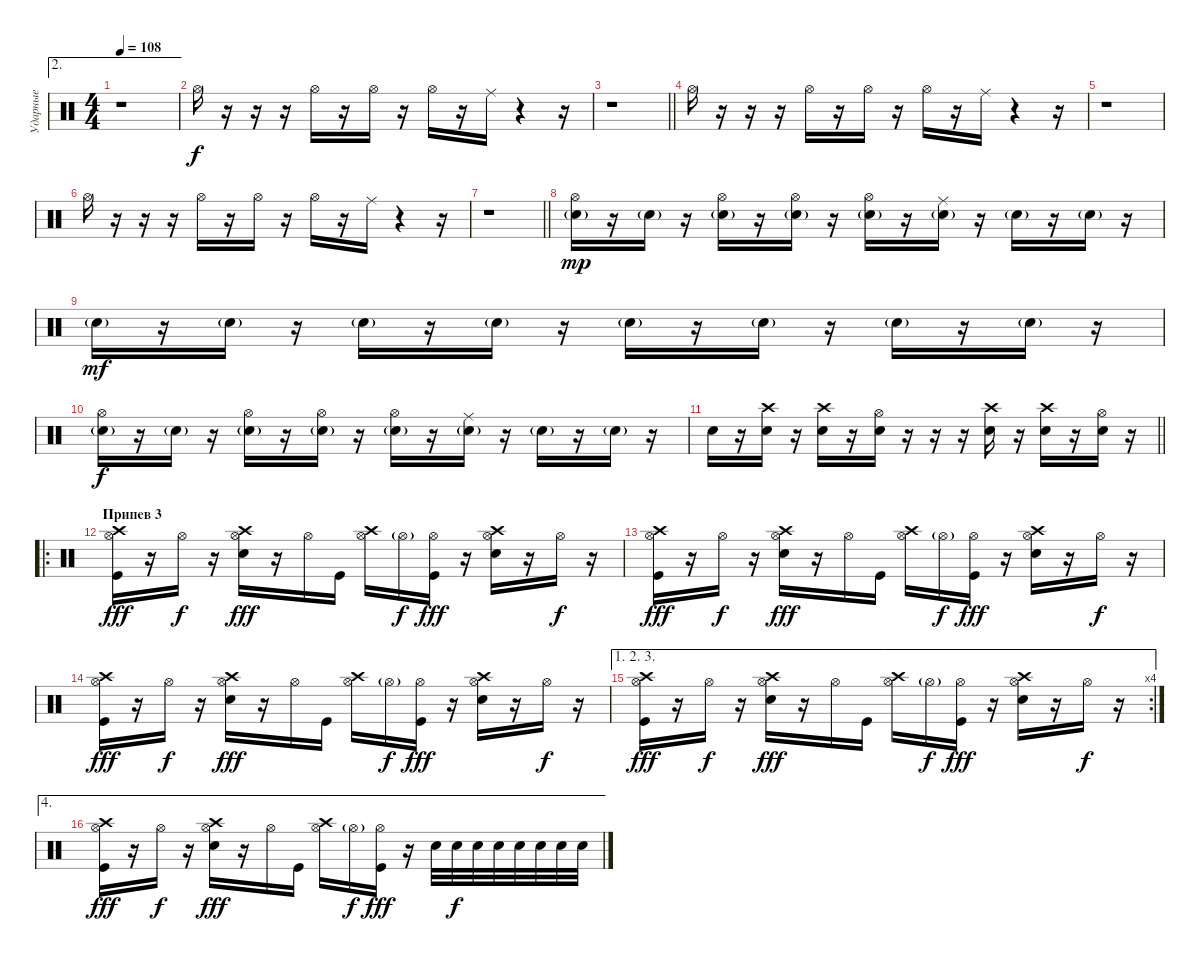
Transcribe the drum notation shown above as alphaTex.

\track ("Ударные" "Ударные") {instrument percussion}
\staff {score}
\articulation defaults
\ae 2
\ts (4 4)
\tempo 108
\clef neutral
\ks c
r.1{dy f} |
"Hi-Hat (open)".16 r.16 r.16 r.16 "Hi-Hat (open)".16 r.16 "Hi-Hat (open)".16 r.16 "Hi-Hat (open)".16 r.16 "Ride (middle)".16 r.4 r.16 |
\barLineRight lightlight
r.1 |
"Hi-Hat (open)".16 r.16 r.16 r.16 "Hi-Hat (open)".16 r.16 "Hi-Hat (open)".16 r.16 "Hi-Hat (open)".16 r.16 "Ride (middle)".16 r.4 r.16 |
r.1 |
"Hi-Hat (open)".16 r.16 r.16 r.16 "Hi-Hat (open)".16 r.16 "Hi-Hat (open)".16 r.16 "Hi-Hat (open)".16 r.16 "Ride (middle)".16 r.4 r.16 |
\barLineRight lightlight
r.1 |
("Electric Snare (hit)"{g} "Hi-Hat (open)").16{dy mp} r.16 "Electric Snare (hit)"{g}.16 r.16 ("Electric Snare (hit)"{g} "Hi-Hat (open)").16 r.16 ("Electric Snare (hit)"{g} "Hi-Hat (open)").16 r.16 ("Electric Snare (hit)"{g} "Hi-Hat (open)").16 r.16 ("Electric Snare (hit)"{g} "Ride (middle)").16 r.16 "Electric Snare (hit)"{g}.16 r.16 "Electric Snare (hit)"{g}.16 r.16 |
"Electric Snare (hit)"{g}.16{dy mf} r.16 "Electric Snare (hit)"{g}.16 r.16 "Electric Snare (hit)"{g}.16 r.16 "Electric Snare (hit)"{g}.16 r.16 "Electric Snare (hit)"{g}.16 r.16 "Electric Snare (hit)"{g}.16 r.16 "Electric Snare (hit)"{g}.16 r.16 "Electric Snare (hit)"{g}.16 r.16 |
("Electric Snare (hit)"{g} "Hi-Hat (open)").16{dy f} r.16 "Electric Snare (hit)"{g}.16 r.16 ("Electric Snare (hit)"{g} "Hi-Hat (open)").16 r.16 ("Electric Snare (hit)"{g} "Hi-Hat (open)").16 r.16 ("Electric Snare (hit)"{g} "Hi-Hat (open)").16 r.16 ("Electric Snare (hit)"{g} "Ride (middle)").16 r.16 "Electric Snare (hit)"{g}.16 r.16 "Electric Snare (hit)"{g}.16 r.16 |
\barLineRight lightlight "Electric Snare (hit)".16
r.16 ("Electric Snare (hit)" "Crash high (hit)").16 r.16 ("Electric Snare (hit)" "Crash high (hit)").16 r.16 ("Electric Snare (hit)" "Hi-Hat (open)").16 r.16 r.16 r.16 ("Electric Snare (hit)" "Crash high (hit)").16 r.16 ("Electric Snare (hit)" "Crash high (hit)").16 r.16 ("Electric Snare (hit)" "Hi-Hat (open)").16 r.16 |
\ro
\section ("" "Припев 3")
("Hi-Hat (open)" "Kick (hit)" "Crash high (hit)").16{dy fff} r.16 "Hi-Hat (open)".16{dy f} r.16 ("Hi-Hat (open)" "Electric Snare (hit)" "Crash high (hit)").16{dy fff} r.16 "Hi-Hat (open)".16 "Kick (hit)".16 ("Hi-Hat (open)" "Crash high (hit)").16 "Hi-Hat (open)"{g}.16{dy f} ("Hi-Hat (open)" "Kick (hit)").16{dy fff} r.16 ("Hi-Hat (open)" "Electric Snare (hit)" "Crash high (hit)").16 r.16 "Hi-Hat (open)".16{dy f} r.16 |
("Hi-Hat (open)" "Kick (hit)" "Crash high (hit)").16{dy fff} r.16 "Hi-Hat (open)".16{dy f} r.16 ("Hi-Hat (open)" "Electric Snare (hit)" "Crash high (hit)").16{dy fff} r.16 "Hi-Hat (open)".16 "Kick (hit)".16 ("Hi-Hat (open)" "Crash high (hit)").16 "Hi-Hat (open)"{g}.16{dy f} ("Hi-Hat (open)" "Kick (hit)").16{dy fff} r.16 ("Hi-Hat (open)" "Electric Snare (hit)" "Crash high (hit)").16 r.16 "Hi-Hat (open)".16{dy f} r.16 |
("Hi-Hat (open)" "Kick (hit)" "Crash high (hit)").16{dy fff} r.16 "Hi-Hat (open)".16{dy f} r.16 ("Hi-Hat (open)" "Electric Snare (hit)" "Crash high (hit)").16{dy fff} r.16 "Hi-Hat (open)".16 "Kick (hit)".16 ("Hi-Hat (open)" "Crash high (hit)").16 "Hi-Hat (open)"{g}.16{dy f} ("Hi-Hat (open)" "Kick (hit)").16{dy fff} r.16 ("Hi-Hat (open)" "Electric Snare (hit)" "Crash high (hit)").16 r.16 "Hi-Hat (open)".16{dy f} r.16 |
\ae (1 2 3)
\rc 4
("Hi-Hat (open)" "Kick (hit)" "Crash high (hit)").16{dy fff} r.16 "Hi-Hat (open)".16{dy f} r.16 ("Hi-Hat (open)" "Electric Snare (hit)" "Crash high (hit)").16{dy fff} r.16 "Hi-Hat (open)".16 "Kick (hit)".16 ("Hi-Hat (open)" "Crash high (hit)").16 "Hi-Hat (open)"{g}.16{dy f} ("Hi-Hat (open)" "Kick (hit)").16{dy fff} r.16 ("Hi-Hat (open)" "Electric Snare (hit)" "Crash high (hit)").16 r.16 "Hi-Hat (open)".16{dy f} r.16 |
\ae 4
("Hi-Hat (open)" "Kick (hit)" "Crash high (hit)").16{dy fff} r.16 "Hi-Hat (open)".16{dy f} r.16 ("Hi-Hat (open)" "Electric Snare (hit)" "Crash high (hit)").16{dy fff} r.16 "Hi-Hat (open)".16 "Kick (hit)".16 ("Hi-Hat (open)" "Crash high (hit)").16 "Hi-Hat (open)"{g}.16{dy f} ("Hi-Hat (open)" "Kick (hit)").16{dy fff} r.16 "Electric Snare (hit)".32 "Electric Snare (hit)".32{dy f} "Electric Snare (hit)".32 "Electric Snare (hit)".32 "Electric Snare (hit)".32 "Electric Snare (hit)".32 "Electric Snare (hit)".32 "Electric Snare (hit)".32
